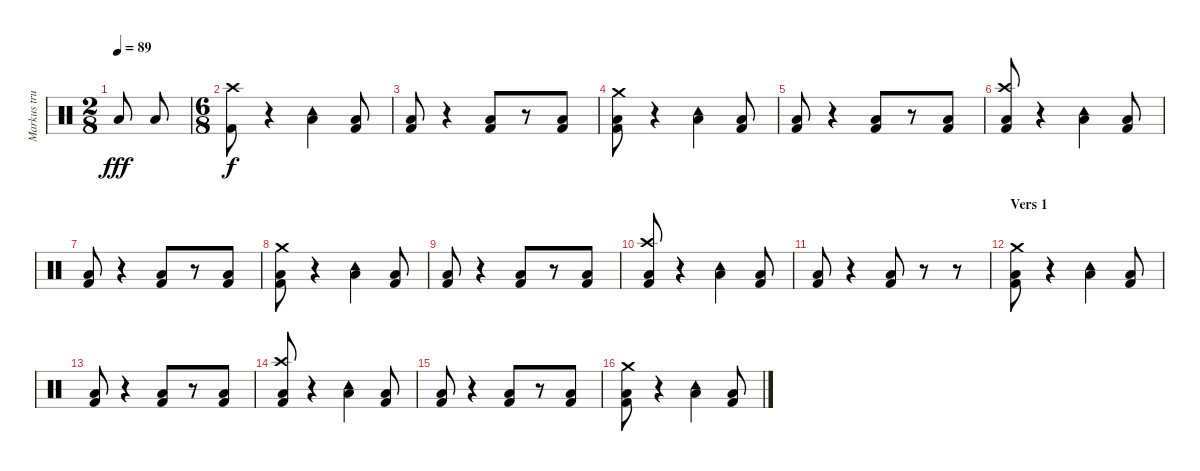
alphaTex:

\track ("Markus trummor" "Markus tru") {instrument percussion}
\staff {score}
\articulation defaults
\ts (2 8)
\tempo 89
\clef neutral
\ks c "Low Tom (hit)".8{dy fff} "Low Floor Tom (hit)".8
|
\ts (6 8)
("Crash high (hit)" "Kick (hit) 2").8{dy f} r.4 ("Tambourine (hit)" "Low Tom (hit)").4 ("Low Tom (hit)" "Kick (hit) 2").8 |
("Low Floor Tom (hit)" "Kick (hit) 2").8 r.4 ("Low Floor Tom (hit)" "Kick (hit) 2").8 r.8 ("Low Tom (hit)" "Kick (hit) 2").8 |
("Crash medium (hit)" "Low Floor Tom (hit)" "Kick (hit) 2").8 r.4 ("Tambourine (hit)" "Low Tom (hit)").4 ("Low Tom (hit)" "Kick (hit) 2").8 |
("Low Floor Tom (hit)" "Kick (hit) 2").8 r.4 ("Low Floor Tom (hit)" "Kick (hit) 2").8 r.8 ("Low Tom (hit)" "Kick (hit) 2").8 |
("Crash high (hit)" "Low Floor Tom (hit)" "Kick (hit) 2").8 r.4 ("Tambourine (hit)" "Low Tom (hit)").4 ("Low Tom (hit)" "Kick (hit) 2").8 |
("Low Floor Tom (hit)" "Kick (hit) 2").8 r.4 ("Low Floor Tom (hit)" "Kick (hit) 2").8 r.8 ("Low Tom (hit)" "Kick (hit) 2").8 |
("Crash medium (hit)" "Low Floor Tom (hit)" "Kick (hit) 2").8 r.4 ("Tambourine (hit)" "Low Tom (hit)").4 ("Low Tom (hit)" "Kick (hit) 2").8 |
("Low Floor Tom (hit)" "Kick (hit) 2").8 r.4 ("Low Floor Tom (hit)" "Kick (hit) 2").8 r.8 ("Low Tom (hit)" "Kick (hit) 2").8 |
("Crash high (hit)" "Low Floor Tom (hit)" "Kick (hit) 2").8 r.4 ("Tambourine (hit)" "Low Tom (hit)").4 ("Low Tom (hit)" "Kick (hit) 2").8 |
("Low Floor Tom (hit)" "Kick (hit) 2").8 r.4 ("Low Floor Tom (hit)" "Kick (hit) 2").8 r.8 r.8 |
\section ("" "Vers 1")
("Crash medium (hit)" "Low Floor Tom (hit)" "Kick (hit) 2").8 r.4 ("Tambourine (hit)" "Low Tom (hit)").4 ("Low Tom (hit)" "Kick (hit) 2").8 |
("Low Floor Tom (hit)" "Kick (hit) 2").8 r.4 ("Low Floor Tom (hit)" "Kick (hit) 2").8 r.8 ("Low Tom (hit)" "Kick (hit) 2").8 |
("Crash high (hit)" "Low Floor Tom (hit)" "Kick (hit) 2").8 r.4 ("Tambourine (hit)" "Low Tom (hit)").4 ("Low Tom (hit)" "Kick (hit) 2").8 |
("Low Floor Tom (hit)" "Kick (hit) 2").8 r.4 ("Low Floor Tom (hit)" "Kick (hit) 2").8 r.8 ("Low Tom (hit)" "Kick (hit) 2").8 |
("Crash medium (hit)" "Low Floor Tom (hit)" "Kick (hit) 2").8 r.4 ("Tambourine (hit)" "Low Tom (hit)").4 ("Low Tom (hit)" "Kick (hit) 2").8
